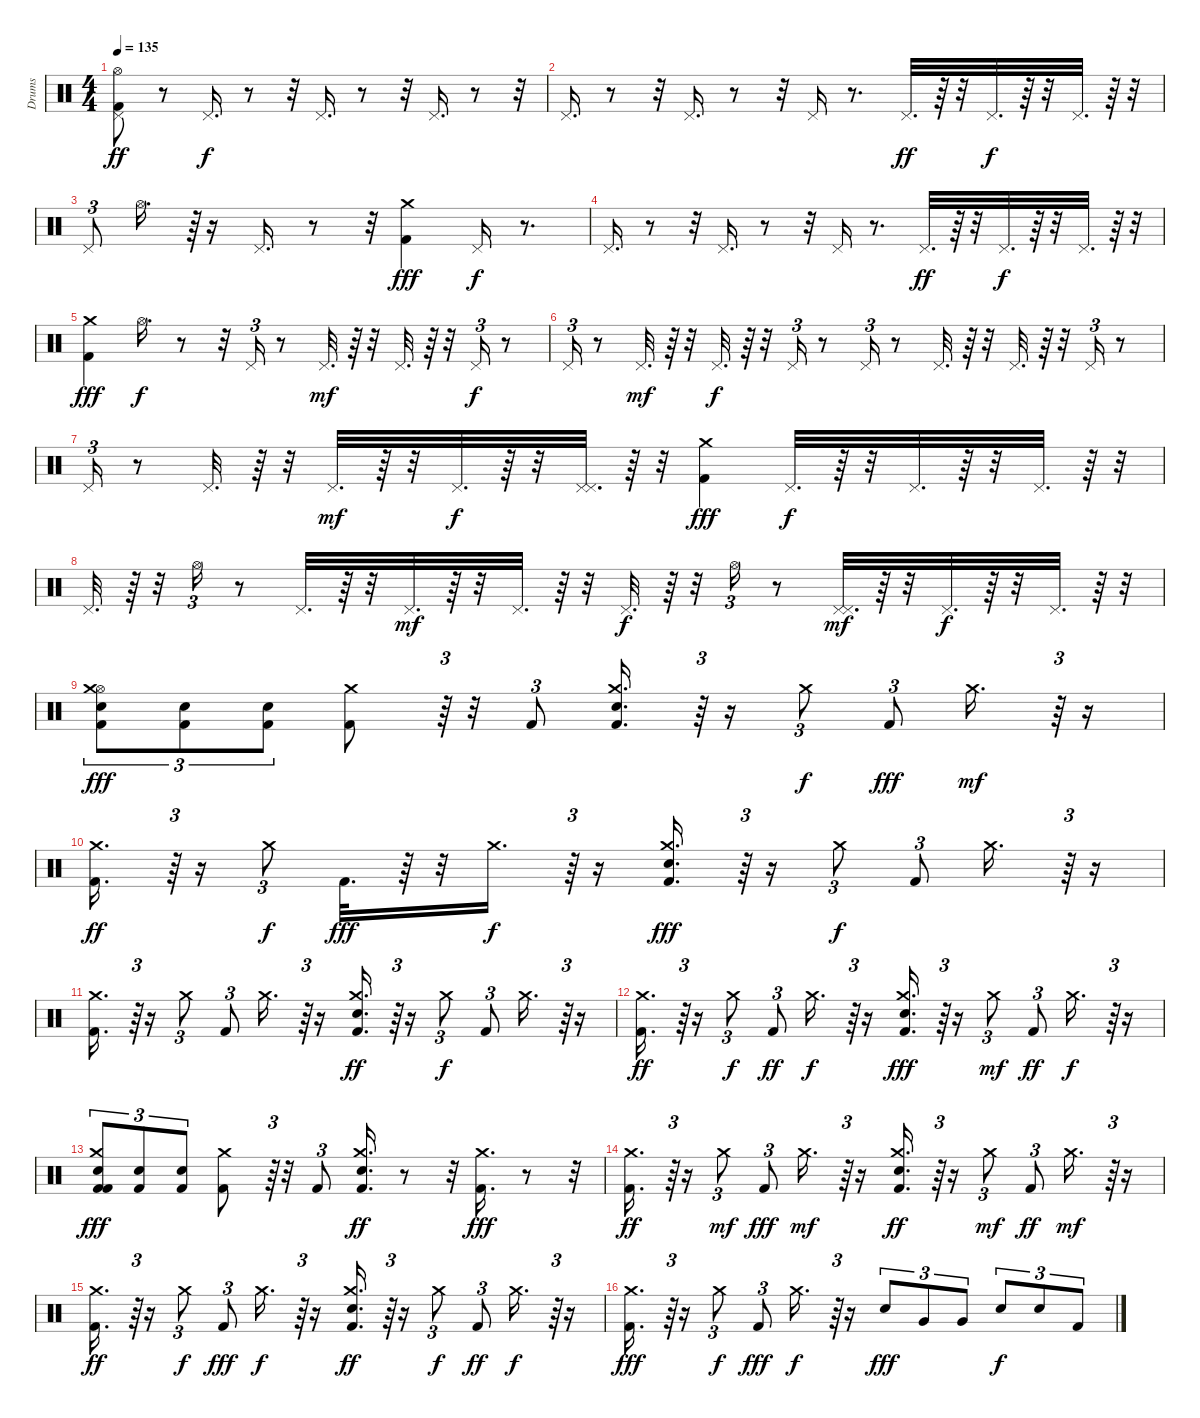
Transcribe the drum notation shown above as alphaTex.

\track ("Drums" "Drums") {instrument percussion}
\staff {score}
\articulation defaults
\ts (4 4)
\tempo 135
\clef neutral
\ks c
("Hi-Hat (open)" "Pedal Hi-Hat (hit)" "Kick (hit) 2").8{dy ff} r.8 "Pedal Hi-Hat (hit)".16{d dy f} r.8 r.32 "Pedal Hi-Hat (hit)".16{d} r.8 r.32 "Pedal Hi-Hat (hit)".16{d} r.8 r.32 |
"Pedal Hi-Hat (hit)".16{d} r.8 r.32 "Pedal Hi-Hat (hit)".16{d} r.8 r.32 "Pedal Hi-Hat (hit)".16 r.8{d} "Pedal Hi-Hat (hit)".32{d dy ff} r.64 r.32 "Pedal Hi-Hat (hit)".32{d dy f} r.64 r.32 "Pedal Hi-Hat (hit)".32{d} r.64 r.32 |
"Pedal Hi-Hat (hit)".8{tu (3 2)} "Hi-Hat (open)".16{d} r.64{tu (3 2)} r.16 "Pedal Hi-Hat (hit)".16{d} r.8 r.32 ("Crash medium (hit)" "Kick (hit) 2").4{dy fff} "Pedal Hi-Hat (hit)".16{dy f} r.8{d} |
"Pedal Hi-Hat (hit)".16{d} r.8 r.32 "Pedal Hi-Hat (hit)".16{d} r.8 r.32 "Pedal Hi-Hat (hit)".16 r.8{d} "Pedal Hi-Hat (hit)".32{d dy ff} r.64 r.32 "Pedal Hi-Hat (hit)".32{d dy f} r.64 r.32 "Pedal Hi-Hat (hit)".32{d} r.64 r.32 |
("Crash medium (hit)" "Kick (hit) 2").4{dy fff} "Hi-Hat (open)".16{d dy f} r.8 r.32 "Pedal Hi-Hat (hit)".16{tu (3 2)} r.8 "Pedal Hi-Hat (hit)".32{d dy mf} r.64 r.32 "Pedal Hi-Hat (hit)".32{d} r.64 r.32 "Pedal Hi-Hat (hit)".16{tu (3 2) dy f} r.8 |
"Pedal Hi-Hat (hit)".16{tu (3 2)} r.8 "Pedal Hi-Hat (hit)".32{d dy mf} r.64 r.32 "Pedal Hi-Hat (hit)".32{d dy f} r.64 r.32 "Pedal Hi-Hat (hit)".16{tu (3 2)} r.8 "Pedal Hi-Hat (hit)".16{tu (3 2)} r.8 "Pedal Hi-Hat (hit)".32{d} r.64 r.32 "Pedal Hi-Hat (hit)".32{d} r.64 r.32 "Pedal Hi-Hat (hit)".16{tu (3 2)} r.8 |
"Pedal Hi-Hat (hit)".16{tu (3 2)} r.8 "Pedal Hi-Hat (hit)".32{d} r.64 r.32 "Pedal Hi-Hat (hit)".32{d dy mf} r.64 r.32 "Pedal Hi-Hat (hit)".32{d dy f} r.64 r.32 ("Pedal Hi-Hat (hit)" "Pedal Hi-Hat (hit)").32{d} r.64 r.32 ("Crash medium (hit)" "Kick (hit) 2").4{dy fff} "Pedal Hi-Hat (hit)".32{d dy f} r.64 r.32 "Pedal Hi-Hat (hit)".32{d} r.64 r.32 "Pedal Hi-Hat (hit)".32{d} r.64 r.32 |
"Pedal Hi-Hat (hit)".32{d} r.64 r.32 "Hi-Hat (open)".16{tu (3 2)} r.8 "Pedal Hi-Hat (hit)".32{d} r.64 r.32 "Pedal Hi-Hat (hit)".32{d dy mf} r.64 r.32 "Pedal Hi-Hat (hit)".32{d} r.64 r.32 "Pedal Hi-Hat (hit)".32{d dy f} r.64 r.32 "Hi-Hat (open)".16{tu (3 2)} r.8 ("Pedal Hi-Hat (hit)" "Pedal Hi-Hat (hit)").32{d dy mf} r.64 r.32 "Pedal Hi-Hat (hit)".32{d dy f} r.64 r.32 "Pedal Hi-Hat (hit)".32{d} r.64 r.32 |
("Hi-Hat (open)" "Crash medium (hit)" "Snare (hit) 2" "Kick (hit) 2").8{tu (3 2) dy fff} ("Kick (hit) 2" "Snare (hit) 2").8{tu (3 2)} ("Snare (hit) 2" "Kick (hit) 2").8{tu (3 2)} ("Crash medium (hit)" "Kick (hit) 2").8 r.64{tu (3 2)} r.32 "Kick (hit) 2".8{tu (3 2)} ("Crash medium (hit)" "Snare (hit) 2" "Kick (hit) 2").16{d} r.64{tu (3 2)} r.16 "Crash medium (hit)".8{tu (3 2) dy f} "Kick (hit) 2".8{tu (3 2) dy fff} "Crash medium (hit)".16{d dy mf} r.64{tu (3 2)} r.16 |
("Crash medium (hit)" "Kick (hit) 2").16{d dy ff} r.64{tu (3 2)} r.16 "Crash medium (hit)".8{tu (3 2) dy f} "Kick (hit) 2".32{d dy fff} r.64 r.32 "Crash medium (hit)".16{d dy f} r.64{tu (3 2)} r.16 ("Crash medium (hit)" "Kick (hit) 2" "Snare (hit) 2").16{d dy fff} r.64{tu (3 2)} r.16 "Crash medium (hit)".8{tu (3 2) dy f} "Kick (hit) 2".8{tu (3 2)} "Crash medium (hit)".16{d} r.64{tu (3 2)} r.16 |
("Crash medium (hit)" "Kick (hit) 2").16{d} r.64{tu (3 2)} r.16 "Crash medium (hit)".8{tu (3 2)} "Kick (hit) 2".8{tu (3 2)} "Crash medium (hit)".16{d} r.64{tu (3 2)} r.16 ("Crash medium (hit)" "Kick (hit) 2" "Snare (hit) 2").16{d dy ff} r.64{tu (3 2)} r.16 "Crash medium (hit)".8{tu (3 2) dy f} "Kick (hit) 2".8{tu (3 2)} "Crash medium (hit)".16{d} r.64{tu (3 2)} r.16 |
("Crash medium (hit)" "Kick (hit) 2").16{d dy ff} r.64{tu (3 2)} r.16 "Crash medium (hit)".8{tu (3 2) dy f} "Kick (hit) 2".8{tu (3 2) dy ff} "Crash medium (hit)".16{d dy f} r.64{tu (3 2)} r.16 ("Crash medium (hit)" "Snare (hit) 2" "Kick (hit) 2").16{d dy fff} r.64{tu (3 2)} r.16 "Crash medium (hit)".8{tu (3 2) dy mf} "Kick (hit) 2".8{tu (3 2) dy ff} "Crash medium (hit)".16{d dy f} r.64{tu (3 2)} r.16 |
("Crash medium (hit)" "Kick (hit) 2" "Kick (hit) 2" "Snare (hit) 2").8{tu (3 2) dy fff} ("Snare (hit) 2" "Kick (hit) 2").8{tu (3 2)} ("Kick (hit) 2" "Snare (hit) 2").8{tu (3 2)} ("Crash medium (hit)" "Kick (hit) 2").8 r.64{tu (3 2)} r.32 "Kick (hit) 2".8{tu (3 2)} ("Crash medium (hit)" "Kick (hit) 2" "Snare (hit) 2").16{d dy ff} r.8 r.32 ("Crash medium (hit)" "Kick (hit) 2").16{d dy fff} r.8 r.32 |
("Crash medium (hit)" "Kick (hit) 2").16{d dy ff} r.64{tu (3 2)} r.16 "Crash medium (hit)".8{tu (3 2) dy mf} "Kick (hit) 2".8{tu (3 2) dy fff} "Crash medium (hit)".16{d dy mf} r.64{tu (3 2)} r.16 ("Crash medium (hit)" "Kick (hit) 2" "Snare (hit) 2").16{d dy ff} r.64{tu (3 2)} r.16 "Crash medium (hit)".8{tu (3 2) dy mf} "Kick (hit) 2".8{tu (3 2) dy ff} "Crash medium (hit)".16{d dy mf} r.64{tu (3 2)} r.16 |
("Crash medium (hit)" "Kick (hit) 2").16{d dy ff} r.64{tu (3 2)} r.16 "Crash medium (hit)".8{tu (3 2) dy f} "Kick (hit) 2".8{tu (3 2) dy fff} "Crash medium (hit)".16{d dy f} r.64{tu (3 2)} r.16 ("Crash medium (hit)" "Snare (hit) 2" "Kick (hit) 2").16{d dy ff} r.64{tu (3 2)} r.16 "Crash medium (hit)".8{tu (3 2) dy f} "Kick (hit) 2".8{tu (3 2) dy ff} "Crash medium (hit)".16{d dy f} r.64{tu (3 2)} r.16 |
("Crash medium (hit)" "Kick (hit) 2").16{d dy fff} r.64{tu (3 2)} r.16 "Crash medium (hit)".8{tu (3 2) dy f} "Kick (hit) 2".8{tu (3 2) dy fff} "Crash medium (hit)".16{d dy f} r.64{tu (3 2)} r.16 "Snare (hit) 2".8{tu (3 2) dy fff} "Very Low Tom (hit)".8{tu (3 2)} "Very Low Tom (hit)".8{tu (3 2)} "Snare (hit) 2".8{tu (3 2) dy f} "Snare (hit) 2".8{tu (3 2)} "Kick (hit) 2".8{tu (3 2)}
